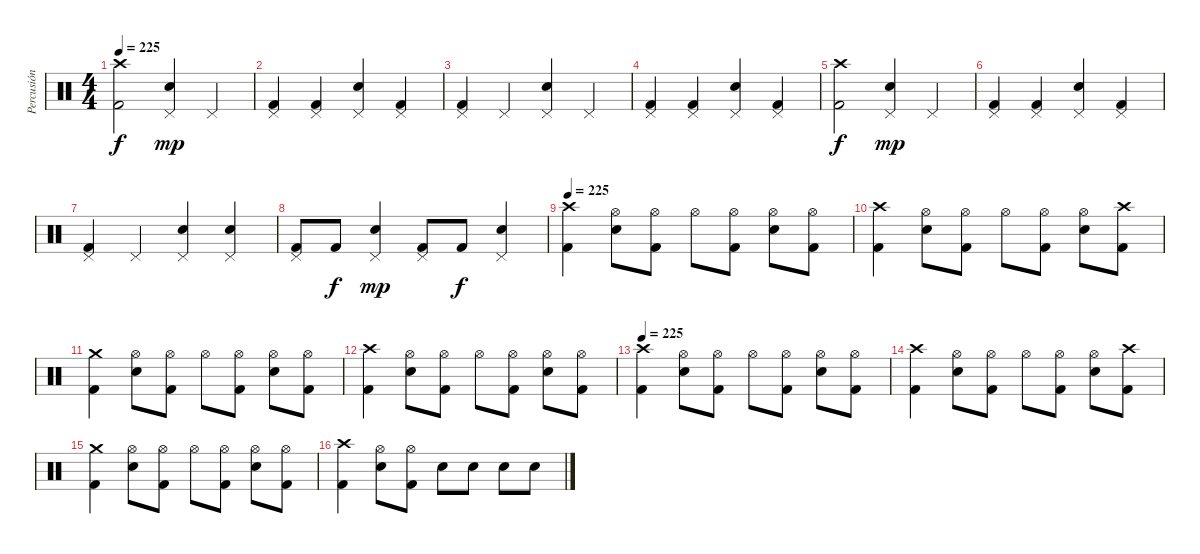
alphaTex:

\track ("Percusión" "Percusión") {instrument percussion}
\staff {score}
\articulation defaults
\ts (4 4)
\tempo 225
\clef neutral
\ks c
("Crash high (hit)" "Kick (hit) 2").2{dy f} ("Pedal Hi-Hat (hit)" "Electric Snare (hit)").4{dy mp} "Pedal Hi-Hat (hit)".4 |
("Pedal Hi-Hat (hit)" "Kick (hit) 2").4 ("Pedal Hi-Hat (hit)" "Kick (hit) 2").4 ("Pedal Hi-Hat (hit)" "Electric Snare (hit)").4 ("Pedal Hi-Hat (hit)" "Kick (hit) 2").4 |
("Pedal Hi-Hat (hit)" "Kick (hit) 2").4 "Pedal Hi-Hat (hit)".4 ("Pedal Hi-Hat (hit)" "Electric Snare (hit)").4 "Pedal Hi-Hat (hit)".4 |
("Pedal Hi-Hat (hit)" "Kick (hit) 2").4 ("Pedal Hi-Hat (hit)" "Kick (hit) 2").4 ("Pedal Hi-Hat (hit)" "Electric Snare (hit)").4 ("Pedal Hi-Hat (hit)" "Kick (hit) 2").4 |
("Crash high (hit)" "Kick (hit) 2").2{dy f} ("Pedal Hi-Hat (hit)" "Electric Snare (hit)").4{dy mp} "Pedal Hi-Hat (hit)".4 |
("Pedal Hi-Hat (hit)" "Kick (hit) 2").4 ("Pedal Hi-Hat (hit)" "Kick (hit) 2").4 ("Pedal Hi-Hat (hit)" "Electric Snare (hit)").4 ("Pedal Hi-Hat (hit)" "Kick (hit) 2").4 |
("Pedal Hi-Hat (hit)" "Kick (hit) 2").4 "Pedal Hi-Hat (hit)".4 ("Pedal Hi-Hat (hit)" "Electric Snare (hit)").4 ("Pedal Hi-Hat (hit)" "Electric Snare (hit)").4 |
("Pedal Hi-Hat (hit)" "Kick (hit) 2").8 "Kick (hit) 2".8{dy f} ("Pedal Hi-Hat (hit)" "Electric Snare (hit)").4{dy mp} ("Pedal Hi-Hat (hit)" "Kick (hit) 2").8 "Kick (hit) 2".8{dy f} ("Pedal Hi-Hat (hit)" "Electric Snare (hit)").4 |
\tempo 225
("Crash high (hit)" "Kick (hit) 2").4 ("Hi-Hat (open)" "Electric Snare (hit)").8 ("Hi-Hat (open)" "Kick (hit) 2").8 "Hi-Hat (open)".8 ("Hi-Hat (open)" "Kick (hit) 2").8 ("Hi-Hat (open)" "Electric Snare (hit)").8 ("Hi-Hat (open)" "Kick (hit) 2").8 |
("Crash high (hit)" "Kick (hit) 2").4 ("Hi-Hat (open)" "Electric Snare (hit)").8 ("Hi-Hat (open)" "Kick (hit) 2").8 "Hi-Hat (open)".8 ("Hi-Hat (open)" "Kick (hit) 2").8 ("Hi-Hat (open)" "Electric Snare (hit)").8 ("Crash high (hit)" "Kick (hit) 2").8 |
("Crash medium (hit)" "Kick (hit) 2").4 ("Hi-Hat (open)" "Electric Snare (hit)").8 ("Hi-Hat (open)" "Kick (hit) 2").8 "Hi-Hat (open)".8 ("Hi-Hat (open)" "Kick (hit) 2").8 ("Hi-Hat (open)" "Electric Snare (hit)").8 ("Hi-Hat (open)" "Kick (hit) 2").8 |
("Crash high (hit)" "Kick (hit) 2").4 ("Hi-Hat (open)" "Electric Snare (hit)").8 ("Hi-Hat (open)" "Kick (hit) 2").8 "Hi-Hat (open)".8 ("Hi-Hat (open)" "Kick (hit) 2").8 ("Hi-Hat (open)" "Electric Snare (hit)").8 ("Hi-Hat (open)" "Kick (hit) 2").8 |
\tempo 225
("Crash high (hit)" "Kick (hit) 2").4 ("Hi-Hat (open)" "Electric Snare (hit)").8 ("Hi-Hat (open)" "Kick (hit) 2").8 "Hi-Hat (open)".8 ("Hi-Hat (open)" "Kick (hit) 2").8 ("Hi-Hat (open)" "Electric Snare (hit)").8 ("Hi-Hat (open)" "Kick (hit) 2").8 |
("Crash high (hit)" "Kick (hit) 2").4 ("Hi-Hat (open)" "Electric Snare (hit)").8 ("Hi-Hat (open)" "Kick (hit) 2").8 "Hi-Hat (open)".8 ("Hi-Hat (open)" "Kick (hit) 2").8 ("Hi-Hat (open)" "Electric Snare (hit)").8 ("Crash high (hit)" "Kick (hit) 2").8 |
("Crash medium (hit)" "Kick (hit) 2").4 ("Hi-Hat (open)" "Electric Snare (hit)").8 ("Hi-Hat (open)" "Kick (hit) 2").8 "Hi-Hat (open)".8 ("Hi-Hat (open)" "Kick (hit) 2").8 ("Hi-Hat (open)" "Electric Snare (hit)").8 ("Hi-Hat (open)" "Kick (hit) 2").8 |
("Crash high (hit)" "Kick (hit) 2").4 ("Hi-Hat (open)" "Electric Snare (hit)").8 ("Hi-Hat (open)" "Kick (hit) 2").8 "Electric Snare (hit)".8 "Electric Snare (hit)".8 "Electric Snare (hit)".8 "Electric Snare (hit)".8
